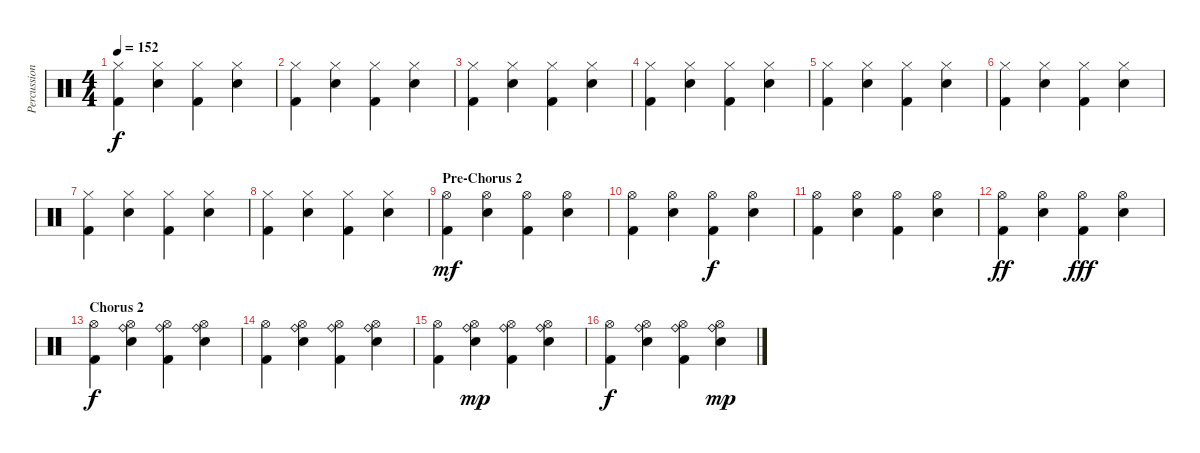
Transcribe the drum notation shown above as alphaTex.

\track ("Percussions" "Percussion") {instrument percussion}
\staff {score}
\articulation defaults
\ts (4 4)
\tempo 152
\clef neutral
\ks c
("Hi-Hat (closed)" "Kick (hit) 2").4{dy f} ("Hi-Hat (closed)" "Electric Snare (hit)").4 ("Hi-Hat (closed)" "Kick (hit) 2").4 ("Hi-Hat (closed)" "Electric Snare (hit)").4 |
("Hi-Hat (closed)" "Kick (hit) 2").4 ("Hi-Hat (closed)" "Electric Snare (hit)").4 ("Hi-Hat (closed)" "Kick (hit) 2").4 ("Hi-Hat (closed)" "Electric Snare (hit)").4 |
("Hi-Hat (closed)" "Kick (hit) 2").4 ("Hi-Hat (closed)" "Electric Snare (hit)").4 ("Hi-Hat (closed)" "Kick (hit) 2").4 ("Hi-Hat (closed)" "Electric Snare (hit)").4 |
("Hi-Hat (closed)" "Kick (hit) 2").4 ("Hi-Hat (closed)" "Electric Snare (hit)").4 ("Hi-Hat (closed)" "Kick (hit) 2").4 ("Hi-Hat (closed)" "Electric Snare (hit)").4 |
("Hi-Hat (closed)" "Kick (hit) 2").4 ("Hi-Hat (closed)" "Electric Snare (hit)").4 ("Hi-Hat (closed)" "Kick (hit) 2").4 ("Hi-Hat (closed)" "Electric Snare (hit)").4 |
("Hi-Hat (closed)" "Kick (hit) 2").4 ("Hi-Hat (closed)" "Electric Snare (hit)").4 ("Hi-Hat (closed)" "Kick (hit) 2").4 ("Hi-Hat (closed)" "Electric Snare (hit)").4 |
("Hi-Hat (closed)" "Kick (hit) 2").4 ("Hi-Hat (closed)" "Electric Snare (hit)").4 ("Hi-Hat (closed)" "Kick (hit) 2").4 ("Hi-Hat (closed)" "Electric Snare (hit)").4 |
("Hi-Hat (closed)" "Kick (hit) 2").4 ("Hi-Hat (closed)" "Electric Snare (hit)").4 ("Hi-Hat (closed)" "Kick (hit) 2").4 ("Hi-Hat (closed)" "Electric Snare (hit)").4 |
\section ("" "Pre-Chorus 2")
("Hi-Hat (open)" "Kick (hit) 2").4{dy mf} ("Hi-Hat (open)" "Electric Snare (hit)").4 ("Hi-Hat (open)" "Kick (hit) 2").4 ("Hi-Hat (open)" "Electric Snare (hit)").4 |
("Hi-Hat (open)" "Kick (hit) 2").4 ("Hi-Hat (open)" "Electric Snare (hit)").4 ("Hi-Hat (open)" "Kick (hit) 2").4{dy f} ("Hi-Hat (open)" "Electric Snare (hit)").4 |
("Hi-Hat (open)" "Kick (hit) 2").4 ("Hi-Hat (open)" "Electric Snare (hit)").4 ("Hi-Hat (open)" "Kick (hit) 2").4 ("Hi-Hat (open)" "Electric Snare (hit)").4 |
("Hi-Hat (open)" "Kick (hit) 2").4{dy ff} ("Hi-Hat (open)" "Electric Snare (hit)").4 ("Hi-Hat (open)" "Kick (hit) 2").4{dy fff} ("Hi-Hat (open)" "Electric Snare (hit)").4 |
\section ("" "Chorus 2")
("Hi-Hat (open)" "Kick (hit) 2").4{dy f} ("Hi-Hat (open)" "Ride (bell)" "Electric Snare (hit)").4 ("Hi-Hat (open)" "Ride (bell)" "Kick (hit) 2").4 ("Hi-Hat (open)" "Ride (bell)" "Electric Snare (hit)").4 |
("Hi-Hat (open)" "Kick (hit) 2").4 ("Hi-Hat (open)" "Ride (bell)" "Electric Snare (hit)").4 ("Hi-Hat (open)" "Ride (bell)" "Kick (hit) 2").4 ("Hi-Hat (open)" "Ride (bell)" "Electric Snare (hit)").4 |
("Hi-Hat (open)" "Kick (hit) 2").4 ("Hi-Hat (open)" "Ride (bell)" "Electric Snare (hit)").4{dy mp} ("Hi-Hat (open)" "Ride (bell)" "Kick (hit) 2").4 ("Hi-Hat (open)" "Ride (bell)" "Electric Snare (hit)").4 |
("Hi-Hat (open)" "Kick (hit) 2").4{dy f} ("Hi-Hat (open)" "Ride (bell)" "Electric Snare (hit)").4 ("Hi-Hat (open)" "Ride (bell)" "Kick (hit) 2").4 ("Hi-Hat (open)" "Ride (bell)" "Electric Snare (hit)").4{dy mp}
